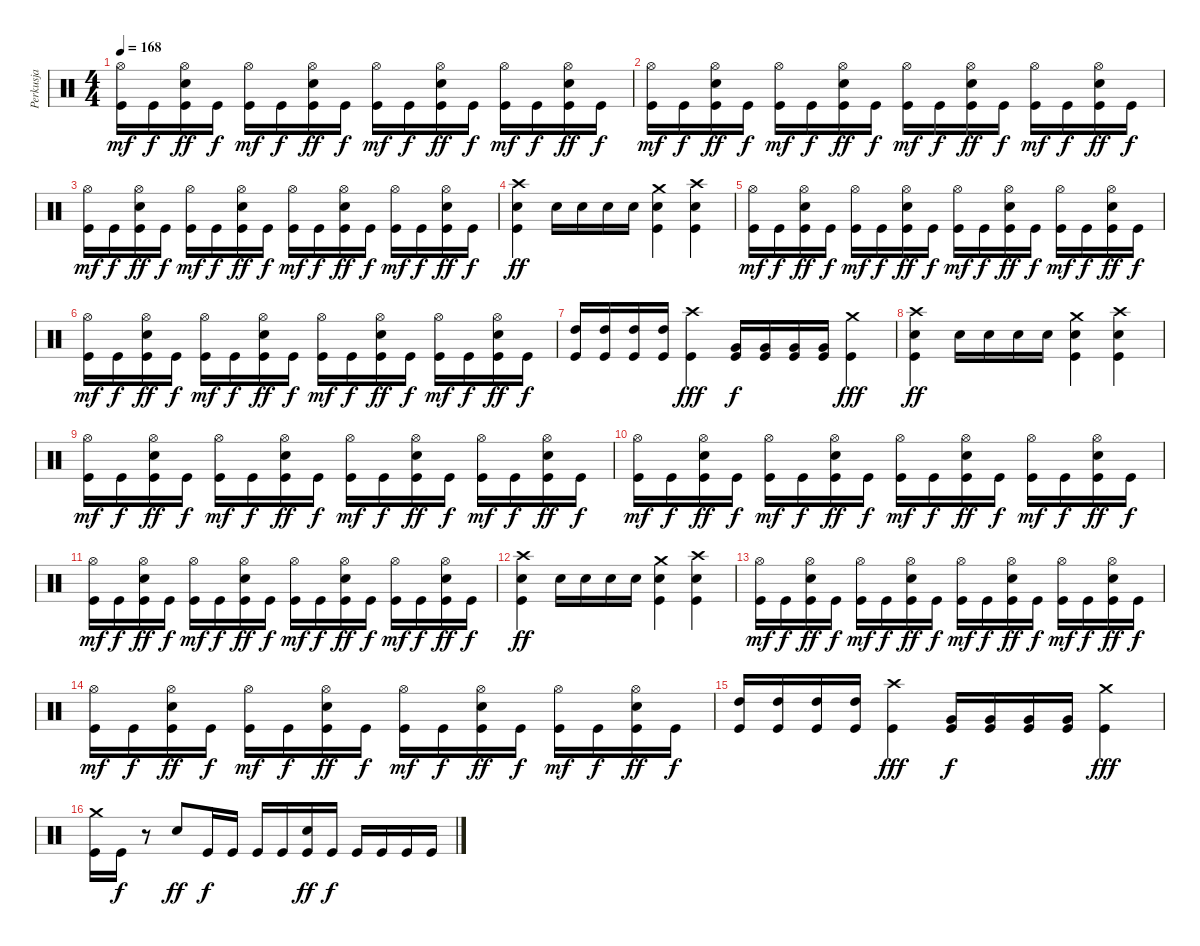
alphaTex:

\track ("Perkusja" "Perkusja") {instrument percussion}
\staff {score}
\articulation defaults
\ts (4 4)
\tempo 168
\clef neutral
\ks c
("Hi-Hat (open)" "Kick (hit)").16{dy mf} "Kick (hit)".16{dy f} ("Hi-Hat (open)" "Snare (hit) 2" "Kick (hit)").16{dy ff} "Kick (hit)".16{dy f} ("Hi-Hat (open)" "Kick (hit)").16{dy mf} "Kick (hit)".16{dy f} ("Hi-Hat (open)" "Snare (hit) 2" "Kick (hit)").16{dy ff} "Kick (hit)".16{dy f} ("Hi-Hat (open)" "Kick (hit)").16{dy mf} "Kick (hit)".16{dy f} ("Hi-Hat (open)" "Snare (hit) 2" "Kick (hit)").16{dy ff} "Kick (hit)".16{dy f} ("Hi-Hat (open)" "Kick (hit)").16{dy mf} "Kick (hit)".16{dy f} ("Hi-Hat (open)" "Snare (hit) 2" "Kick (hit)").16{dy ff} "Kick (hit)".16{dy f} |
("Hi-Hat (open)" "Kick (hit)").16{dy mf} "Kick (hit)".16{dy f} ("Hi-Hat (open)" "Snare (hit) 2" "Kick (hit)").16{dy ff} "Kick (hit)".16{dy f} ("Hi-Hat (open)" "Kick (hit)").16{dy mf} "Kick (hit)".16{dy f} ("Hi-Hat (open)" "Snare (hit) 2" "Kick (hit)").16{dy ff} "Kick (hit)".16{dy f} ("Hi-Hat (open)" "Kick (hit)").16{dy mf} "Kick (hit)".16{dy f} ("Hi-Hat (open)" "Snare (hit) 2" "Kick (hit)").16{dy ff} "Kick (hit)".16{dy f} ("Hi-Hat (open)" "Kick (hit)").16{dy mf} "Kick (hit)".16{dy f} ("Hi-Hat (open)" "Snare (hit) 2" "Kick (hit)").16{dy ff} "Kick (hit)".16{dy f} |
("Hi-Hat (open)" "Kick (hit)").16{dy mf} "Kick (hit)".16{dy f} ("Hi-Hat (open)" "Snare (hit) 2" "Kick (hit)").16{dy ff} "Kick (hit)".16{dy f} ("Hi-Hat (open)" "Kick (hit)").16{dy mf} "Kick (hit)".16{dy f} ("Hi-Hat (open)" "Snare (hit) 2" "Kick (hit)").16{dy ff} "Kick (hit)".16{dy f} ("Hi-Hat (open)" "Kick (hit)").16{dy mf} "Kick (hit)".16{dy f} ("Hi-Hat (open)" "Snare (hit) 2" "Kick (hit)").16{dy ff} "Kick (hit)".16{dy f} ("Hi-Hat (open)" "Kick (hit)").16{dy mf} "Kick (hit)".16{dy f} ("Hi-Hat (open)" "Snare (hit) 2" "Kick (hit)").16{dy ff} "Kick (hit)".16{dy f} |
("Crash high (hit)" "Snare (hit) 2" "Kick (hit)").4{dy ff} "Snare (hit) 2".16 "Snare (hit) 2".16 "Snare (hit) 2".16 "Snare (hit) 2".16 ("Crash medium (hit)" "Snare (hit) 2" "Kick (hit)").4 ("Crash high (hit)" "Snare (hit) 2" "Kick (hit)").4 |
("Hi-Hat (open)" "Kick (hit)").16{dy mf} "Kick (hit)".16{dy f} ("Hi-Hat (open)" "Snare (hit) 2" "Kick (hit)").16{dy ff} "Kick (hit)".16{dy f} ("Hi-Hat (open)" "Kick (hit)").16{dy mf} "Kick (hit)".16{dy f} ("Hi-Hat (open)" "Snare (hit) 2" "Kick (hit)").16{dy ff} "Kick (hit)".16{dy f} ("Hi-Hat (open)" "Kick (hit)").16{dy mf} "Kick (hit)".16{dy f} ("Hi-Hat (open)" "Snare (hit) 2" "Kick (hit)").16{dy ff} "Kick (hit)".16{dy f} ("Hi-Hat (open)" "Kick (hit)").16{dy mf} "Kick (hit)".16{dy f} ("Hi-Hat (open)" "Snare (hit) 2" "Kick (hit)").16{dy ff} "Kick (hit)".16{dy f} |
("Hi-Hat (open)" "Kick (hit)").16{dy mf} "Kick (hit)".16{dy f} ("Hi-Hat (open)" "Snare (hit) 2" "Kick (hit)").16{dy ff} "Kick (hit)".16{dy f} ("Hi-Hat (open)" "Kick (hit)").16{dy mf} "Kick (hit)".16{dy f} ("Hi-Hat (open)" "Snare (hit) 2" "Kick (hit)").16{dy ff} "Kick (hit)".16{dy f} ("Hi-Hat (open)" "Kick (hit)").16{dy mf} "Kick (hit)".16{dy f} ("Hi-Hat (open)" "Snare (hit) 2" "Kick (hit)").16{dy ff} "Kick (hit)".16{dy f} ("Hi-Hat (open)" "Kick (hit)").16{dy mf} "Kick (hit)".16{dy f} ("Hi-Hat (open)" "Snare (hit) 2" "Kick (hit)").16{dy ff} "Kick (hit)".16{dy f} |
("High Tom (hit)" "Kick (hit)").16 ("High Tom (hit)" "Kick (hit)").16 ("High Tom (hit)" "Kick (hit)").16 ("High Tom (hit)" "Kick (hit)").16 ("Crash high (hit)" "Kick (hit)").4{dy fff} ("Very Low Tom (hit)" "Kick (hit)").16{dy f} ("Very Low Tom (hit)" "Kick (hit)").16 ("Very Low Tom (hit)" "Kick (hit)").16 ("Very Low Tom (hit)" "Kick (hit)").16 ("Crash medium (hit)" "Kick (hit)").4{dy fff} |
("Crash high (hit)" "Snare (hit) 2" "Kick (hit)").4{dy ff} "Snare (hit) 2".16 "Snare (hit) 2".16 "Snare (hit) 2".16 "Snare (hit) 2".16 ("Crash medium (hit)" "Snare (hit) 2" "Kick (hit)").4 ("Crash high (hit)" "Snare (hit) 2" "Kick (hit)").4 |
("Hi-Hat (open)" "Kick (hit)").16{dy mf} "Kick (hit)".16{dy f} ("Hi-Hat (open)" "Snare (hit) 2" "Kick (hit)").16{dy ff} "Kick (hit)".16{dy f} ("Hi-Hat (open)" "Kick (hit)").16{dy mf} "Kick (hit)".16{dy f} ("Hi-Hat (open)" "Snare (hit) 2" "Kick (hit)").16{dy ff} "Kick (hit)".16{dy f} ("Hi-Hat (open)" "Kick (hit)").16{dy mf} "Kick (hit)".16{dy f} ("Hi-Hat (open)" "Snare (hit) 2" "Kick (hit)").16{dy ff} "Kick (hit)".16{dy f} ("Hi-Hat (open)" "Kick (hit)").16{dy mf} "Kick (hit)".16{dy f} ("Hi-Hat (open)" "Snare (hit) 2" "Kick (hit)").16{dy ff} "Kick (hit)".16{dy f} |
("Hi-Hat (open)" "Kick (hit)").16{dy mf} "Kick (hit)".16{dy f} ("Hi-Hat (open)" "Snare (hit) 2" "Kick (hit)").16{dy ff} "Kick (hit)".16{dy f} ("Hi-Hat (open)" "Kick (hit)").16{dy mf} "Kick (hit)".16{dy f} ("Hi-Hat (open)" "Snare (hit) 2" "Kick (hit)").16{dy ff} "Kick (hit)".16{dy f} ("Hi-Hat (open)" "Kick (hit)").16{dy mf} "Kick (hit)".16{dy f} ("Hi-Hat (open)" "Snare (hit) 2" "Kick (hit)").16{dy ff} "Kick (hit)".16{dy f} ("Hi-Hat (open)" "Kick (hit)").16{dy mf} "Kick (hit)".16{dy f} ("Hi-Hat (open)" "Snare (hit) 2" "Kick (hit)").16{dy ff} "Kick (hit)".16{dy f} |
("Hi-Hat (open)" "Kick (hit)").16{dy mf} "Kick (hit)".16{dy f} ("Hi-Hat (open)" "Snare (hit) 2" "Kick (hit)").16{dy ff} "Kick (hit)".16{dy f} ("Hi-Hat (open)" "Kick (hit)").16{dy mf} "Kick (hit)".16{dy f} ("Hi-Hat (open)" "Snare (hit) 2" "Kick (hit)").16{dy ff} "Kick (hit)".16{dy f} ("Hi-Hat (open)" "Kick (hit)").16{dy mf} "Kick (hit)".16{dy f} ("Hi-Hat (open)" "Snare (hit) 2" "Kick (hit)").16{dy ff} "Kick (hit)".16{dy f} ("Hi-Hat (open)" "Kick (hit)").16{dy mf} "Kick (hit)".16{dy f} ("Hi-Hat (open)" "Snare (hit) 2" "Kick (hit)").16{dy ff} "Kick (hit)".16{dy f} |
("Crash high (hit)" "Snare (hit) 2" "Kick (hit)").4{dy ff} "Snare (hit) 2".16 "Snare (hit) 2".16 "Snare (hit) 2".16 "Snare (hit) 2".16 ("Crash medium (hit)" "Snare (hit) 2" "Kick (hit)").4 ("Crash high (hit)" "Snare (hit) 2" "Kick (hit)").4 |
("Hi-Hat (open)" "Kick (hit)").16{dy mf} "Kick (hit)".16{dy f} ("Hi-Hat (open)" "Snare (hit) 2" "Kick (hit)").16{dy ff} "Kick (hit)".16{dy f} ("Hi-Hat (open)" "Kick (hit)").16{dy mf} "Kick (hit)".16{dy f} ("Hi-Hat (open)" "Snare (hit) 2" "Kick (hit)").16{dy ff} "Kick (hit)".16{dy f} ("Hi-Hat (open)" "Kick (hit)").16{dy mf} "Kick (hit)".16{dy f} ("Hi-Hat (open)" "Snare (hit) 2" "Kick (hit)").16{dy ff} "Kick (hit)".16{dy f} ("Hi-Hat (open)" "Kick (hit)").16{dy mf} "Kick (hit)".16{dy f} ("Hi-Hat (open)" "Snare (hit) 2" "Kick (hit)").16{dy ff} "Kick (hit)".16{dy f} |
("Hi-Hat (open)" "Kick (hit)").16{dy mf} "Kick (hit)".16{dy f} ("Hi-Hat (open)" "Snare (hit) 2" "Kick (hit)").16{dy ff} "Kick (hit)".16{dy f} ("Hi-Hat (open)" "Kick (hit)").16{dy mf} "Kick (hit)".16{dy f} ("Hi-Hat (open)" "Snare (hit) 2" "Kick (hit)").16{dy ff} "Kick (hit)".16{dy f} ("Hi-Hat (open)" "Kick (hit)").16{dy mf} "Kick (hit)".16{dy f} ("Hi-Hat (open)" "Snare (hit) 2" "Kick (hit)").16{dy ff} "Kick (hit)".16{dy f} ("Hi-Hat (open)" "Kick (hit)").16{dy mf} "Kick (hit)".16{dy f} ("Hi-Hat (open)" "Snare (hit) 2" "Kick (hit)").16{dy ff} "Kick (hit)".16{dy f} |
("High Tom (hit)" "Kick (hit)").16 ("High Tom (hit)" "Kick (hit)").16 ("High Tom (hit)" "Kick (hit)").16 ("High Tom (hit)" "Kick (hit)").16 ("Crash high (hit)" "Kick (hit)").4{dy fff} ("Very Low Tom (hit)" "Kick (hit)").16{dy f} ("Very Low Tom (hit)" "Kick (hit)").16 ("Very Low Tom (hit)" "Kick (hit)").16 ("Very Low Tom (hit)" "Kick (hit)").16 ("Crash medium (hit)" "Kick (hit)").4{dy fff} |
("Crash medium (hit)" "Kick (hit)").16 "Kick (hit)".16{dy f} r.8 "Snare (hit) 2".8{dy ff} "Kick (hit)".16{dy f} "Kick (hit)".16 "Kick (hit)".16 "Kick (hit)".16 ("Snare (hit) 2" "Kick (hit)").16{dy ff} "Kick (hit)".16{dy f} "Kick (hit)".16 "Kick (hit)".16 "Kick (hit)".16 "Kick (hit)".16
